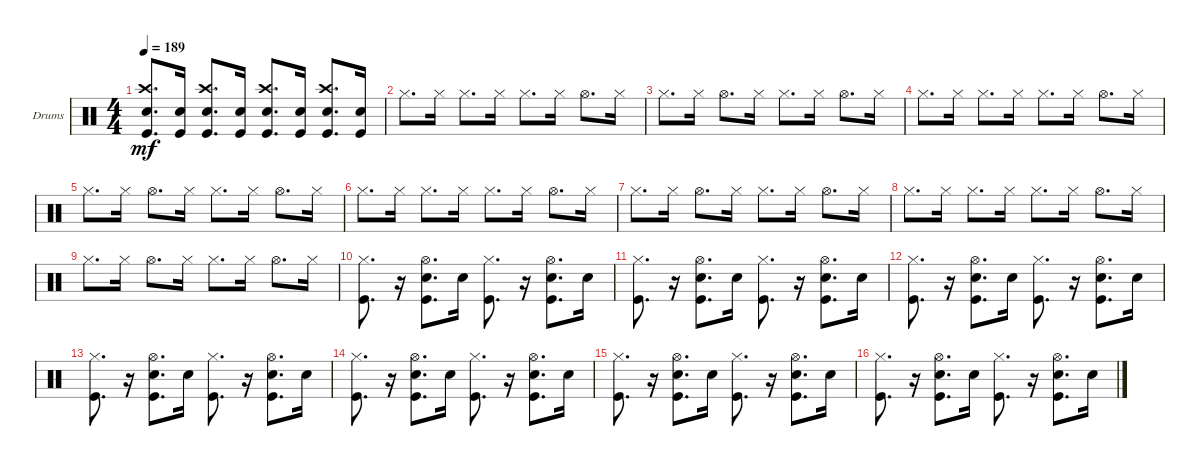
\defaultSystemsLayout 4
\bracketExtendMode groupsimilarinstruments
\firstSystemTrackNameOrientation horizontal
\otherSystemsTrackNameOrientation horizontal
\track ("Drumkit" "Drums") {instrument percussion}
\staff {score}
\articulation defaults
\ts (4 4)
\tempo 189
\clef neutral
\scale
0.333333
\ks c
("Kick (hit)" "Crash high (hit)" "Snare (hit) 2").8{d dy mf} ("Snare (hit) 2" "Kick (hit)").16 ("Kick (hit)" "Crash high (hit)" "Snare (hit) 2").8{d} ("Snare (hit) 2" "Kick (hit)").16 ("Kick (hit)" "Crash high (hit)" "Snare (hit) 2").8{d} ("Snare (hit) 2" "Kick (hit)").16 ("Kick (hit)" "Crash high (hit)" "Snare (hit) 2").8{d} ("Snare (hit) 2" "Kick (hit)").16 |
\scale
0.333333 "Hi-Hat (closed)".8{d} "Hi-Hat (closed)".16 "Hi-Hat (closed)".8{d} "Hi-Hat (closed)".16 "Hi-Hat (closed)".8{d} "Hi-Hat (closed)".16 "Hi-Hat (open)".8{d} "Hi-Hat (closed)".16 |
\scale
0.333333 "Hi-Hat (closed)".8{d} "Hi-Hat (closed)".16 "Hi-Hat (open)".8{d} "Hi-Hat (closed)".16 "Hi-Hat (closed)".8{d} "Hi-Hat (closed)".16 "Hi-Hat (open)".8{d} "Hi-Hat (closed)".16 |
\scale
0.333333 "Hi-Hat (closed)".8{d} "Hi-Hat (closed)".16 "Hi-Hat (closed)".8{d} "Hi-Hat (closed)".16 "Hi-Hat (closed)".8{d} "Hi-Hat (closed)".16 "Hi-Hat (open)".8{d} "Hi-Hat (closed)".16 |
\scale
0.333333 "Hi-Hat (closed)".8{d} "Hi-Hat (closed)".16 "Hi-Hat (open)".8{d} "Hi-Hat (closed)".16 "Hi-Hat (closed)".8{d} "Hi-Hat (closed)".16 "Hi-Hat (open)".8{d} "Hi-Hat (closed)".16 |
\scale
0.333333 "Hi-Hat (closed)".8{d} "Hi-Hat (closed)".16 "Hi-Hat (closed)".8{d} "Hi-Hat (closed)".16 "Hi-Hat (closed)".8{d} "Hi-Hat (closed)".16 "Hi-Hat (open)".8{d} "Hi-Hat (closed)".16 |
\scale
0.333333 "Hi-Hat (closed)".8{d} "Hi-Hat (closed)".16 "Hi-Hat (open)".8{d} "Hi-Hat (closed)".16 "Hi-Hat (closed)".8{d} "Hi-Hat (closed)".16 "Hi-Hat (open)".8{d} "Hi-Hat (closed)".16 |
\scale
0.333333 "Hi-Hat (closed)".8{d} "Hi-Hat (closed)".16 "Hi-Hat (closed)".8{d} "Hi-Hat (closed)".16 "Hi-Hat (closed)".8{d} "Hi-Hat (closed)".16 "Hi-Hat (open)".8{d} "Hi-Hat (closed)".16 |
\scale
0.333333 "Hi-Hat (closed)".8{d} "Hi-Hat (closed)".16 "Hi-Hat (open)".8{d} "Hi-Hat (closed)".16 "Hi-Hat (closed)".8{d} "Hi-Hat (closed)".16 "Hi-Hat (open)".8{d} "Hi-Hat (closed)".16 |
\scale
0.333333 ("Kick (hit)" "Hi-Hat (closed)").8{d} r.16 ("Snare (hit) 2" "Kick (hit)" "Hi-Hat (open)").8{d} "Snare (hit) 2".16 ("Kick (hit)" "Hi-Hat (closed)").8{d} r.16 ("Snare (hit) 2" "Kick (hit)" "Hi-Hat (open)").8{d} "Snare (hit) 2".16 |
\scale
0.333333 ("Kick (hit)" "Hi-Hat (closed)").8{d} r.16 ("Snare (hit) 2" "Kick (hit)" "Hi-Hat (open)").8{d} "Snare (hit) 2".16 ("Kick (hit)" "Hi-Hat (closed)").8{d} r.16 ("Snare (hit) 2" "Kick (hit)" "Hi-Hat (open)").8{d} "Snare (hit) 2".16 |
\scale
0.333333 ("Kick (hit)" "Hi-Hat (closed)").8{d} r.16 ("Snare (hit) 2" "Kick (hit)" "Hi-Hat (open)").8{d} "Snare (hit) 2".16 ("Kick (hit)" "Hi-Hat (closed)").8{d} r.16 ("Snare (hit) 2" "Kick (hit)" "Hi-Hat (open)").8{d} "Snare (hit) 2".16 |
\scale
0.333333 ("Kick (hit)" "Hi-Hat (closed)").8{d} r.16 ("Snare (hit) 2" "Kick (hit)" "Hi-Hat (open)").8{d} "Snare (hit) 2".16 ("Kick (hit)" "Hi-Hat (closed)").8{d} r.16 ("Snare (hit) 2" "Kick (hit)" "Hi-Hat (open)").8{d} "Snare (hit) 2".16 |
\scale
0.333333 ("Kick (hit)" "Hi-Hat (closed)").8{d} r.16 ("Snare (hit) 2" "Kick (hit)" "Hi-Hat (open)").8{d} "Snare (hit) 2".16 ("Kick (hit)" "Hi-Hat (closed)").8{d} r.16 ("Snare (hit) 2" "Kick (hit)" "Hi-Hat (open)").8{d} "Snare (hit) 2".16 |
\scale
0.333333 ("Kick (hit)" "Hi-Hat (closed)").8{d} r.16 ("Snare (hit) 2" "Kick (hit)" "Hi-Hat (open)").8{d} "Snare (hit) 2".16 ("Kick (hit)" "Hi-Hat (closed)").8{d} r.16 ("Snare (hit) 2" "Kick (hit)" "Hi-Hat (open)").8{d} "Snare (hit) 2".16 |
\scale
0.333333 ("Kick (hit)" "Hi-Hat (closed)").8{d} r.16 ("Snare (hit) 2" "Kick (hit)" "Hi-Hat (open)").8{d} "Snare (hit) 2".16 ("Kick (hit)" "Hi-Hat (closed)").8{d} r.16 ("Snare (hit) 2" "Kick (hit)" "Hi-Hat (open)").8{d} "Snare (hit) 2".16
